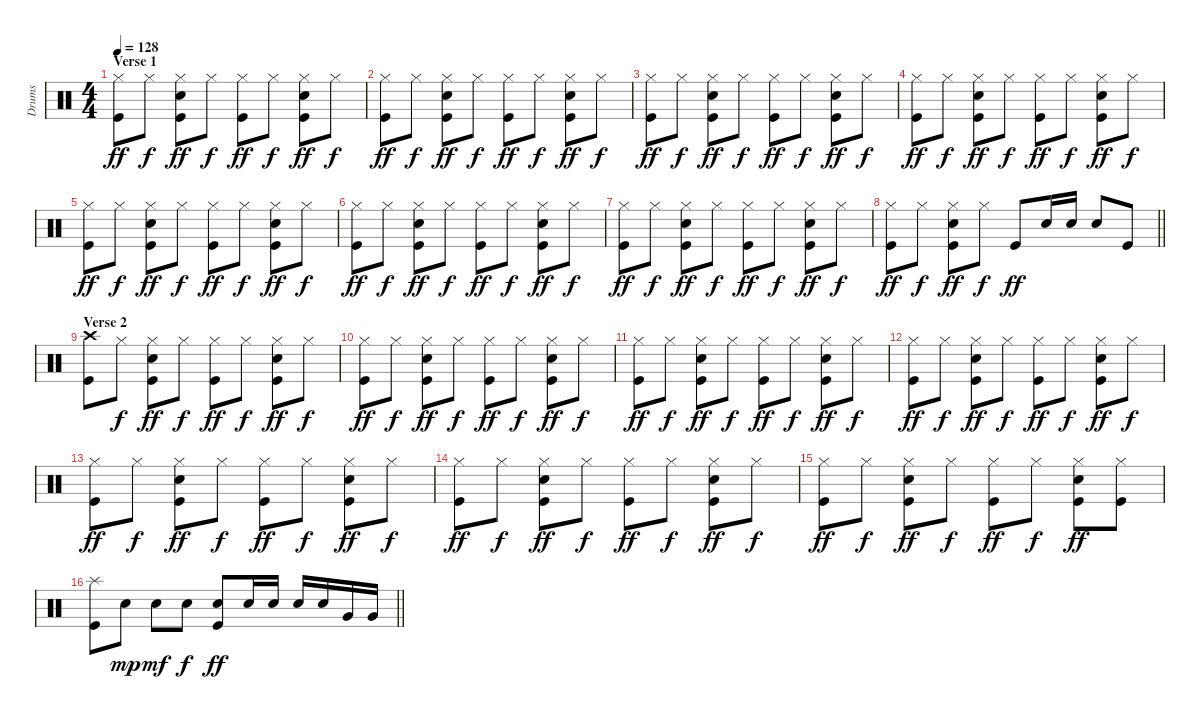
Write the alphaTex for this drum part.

\track ("Drums" "Drums") {instrument percussion}
\staff {score}
\articulation defaults
\ts (4 4)
\section ("" "Verse 1")
\tempo 128
\clef neutral
\ks c
("Hi-Hat (closed)" "Kick (hit)").8{dy ff} "Hi-Hat (closed)".8{dy f} ("Hi-Hat (closed)" "Electric Snare (hit)" "Kick (hit)").8{dy ff} "Hi-Hat (closed)".8{dy f} ("Hi-Hat (closed)" "Kick (hit)").8{dy ff} "Hi-Hat (closed)".8{dy f} ("Hi-Hat (closed)" "Electric Snare (hit)" "Kick (hit)").8{dy ff} "Hi-Hat (closed)".8{dy f} |
("Hi-Hat (closed)" "Kick (hit)").8{dy ff} "Hi-Hat (closed)".8{dy f} ("Hi-Hat (closed)" "Electric Snare (hit)" "Kick (hit)").8{dy ff} "Hi-Hat (closed)".8{dy f} ("Hi-Hat (closed)" "Kick (hit)").8{dy ff} "Hi-Hat (closed)".8{dy f} ("Hi-Hat (closed)" "Electric Snare (hit)" "Kick (hit)").8{dy ff} "Hi-Hat (closed)".8{dy f} |
("Hi-Hat (closed)" "Kick (hit)").8{dy ff} "Hi-Hat (closed)".8{dy f} ("Hi-Hat (closed)" "Electric Snare (hit)" "Kick (hit)").8{dy ff} "Hi-Hat (closed)".8{dy f} ("Hi-Hat (closed)" "Kick (hit)").8{dy ff} "Hi-Hat (closed)".8{dy f} ("Hi-Hat (closed)" "Electric Snare (hit)" "Kick (hit)").8{dy ff} "Hi-Hat (closed)".8{dy f} |
("Hi-Hat (closed)" "Kick (hit)").8{dy ff} "Hi-Hat (closed)".8{dy f} ("Hi-Hat (closed)" "Electric Snare (hit)" "Kick (hit)").8{dy ff} "Hi-Hat (closed)".8{dy f} ("Hi-Hat (closed)" "Kick (hit)").8{dy ff} "Hi-Hat (closed)".8{dy f} ("Hi-Hat (closed)" "Electric Snare (hit)" "Kick (hit)").8{dy ff} "Hi-Hat (closed)".8{dy f} |
("Hi-Hat (closed)" "Kick (hit)").8{dy ff} "Hi-Hat (closed)".8{dy f} ("Hi-Hat (closed)" "Electric Snare (hit)" "Kick (hit)").8{dy ff} "Hi-Hat (closed)".8{dy f} ("Hi-Hat (closed)" "Kick (hit)").8{dy ff} "Hi-Hat (closed)".8{dy f} ("Hi-Hat (closed)" "Electric Snare (hit)" "Kick (hit)").8{dy ff} "Hi-Hat (closed)".8{dy f} |
("Hi-Hat (closed)" "Kick (hit)").8{dy ff} "Hi-Hat (closed)".8{dy f} ("Hi-Hat (closed)" "Electric Snare (hit)" "Kick (hit)").8{dy ff} "Hi-Hat (closed)".8{dy f} ("Hi-Hat (closed)" "Kick (hit)").8{dy ff} "Hi-Hat (closed)".8{dy f} ("Hi-Hat (closed)" "Electric Snare (hit)" "Kick (hit)").8{dy ff} "Hi-Hat (closed)".8{dy f} |
("Hi-Hat (closed)" "Kick (hit)").8{dy ff} "Hi-Hat (closed)".8{dy f} ("Hi-Hat (closed)" "Electric Snare (hit)" "Kick (hit)").8{dy ff} "Hi-Hat (closed)".8{dy f} ("Hi-Hat (closed)" "Kick (hit)").8{dy ff} "Hi-Hat (closed)".8{dy f} ("Hi-Hat (closed)" "Electric Snare (hit)" "Kick (hit)").8{dy ff} "Hi-Hat (closed)".8{dy f} |
\barLineRight lightlight
("Hi-Hat (closed)" "Kick (hit)").8{dy ff} "Hi-Hat (closed)".8{dy f} ("Hi-Hat (closed)" "Electric Snare (hit)" "Kick (hit)").8{dy ff} "Hi-Hat (closed)".8{dy f} "Kick (hit)".8{dy ff} "Electric Snare (hit)".16 "Electric Snare (hit)".16 "Electric Snare (hit)".8 "Kick (hit)".8 |
\section ("" "Verse 2")
("Crash high (hit)" "Kick (hit)").8 "Hi-Hat (closed)".8{dy f} ("Hi-Hat (closed)" "Electric Snare (hit)" "Kick (hit)").8{dy ff} "Hi-Hat (closed)".8{dy f} ("Hi-Hat (closed)" "Kick (hit)").8{dy ff} "Hi-Hat (closed)".8{dy f} ("Hi-Hat (closed)" "Electric Snare (hit)" "Kick (hit)").8{dy ff} "Hi-Hat (closed)".8{dy f} |
("Hi-Hat (closed)" "Kick (hit)").8{dy ff} "Hi-Hat (closed)".8{dy f} ("Hi-Hat (closed)" "Electric Snare (hit)" "Kick (hit)").8{dy ff} "Hi-Hat (closed)".8{dy f} ("Hi-Hat (closed)" "Kick (hit)").8{dy ff} "Hi-Hat (closed)".8{dy f} ("Hi-Hat (closed)" "Electric Snare (hit)" "Kick (hit)").8{dy ff} "Hi-Hat (closed)".8{dy f} |
("Hi-Hat (closed)" "Kick (hit)").8{dy ff} "Hi-Hat (closed)".8{dy f} ("Hi-Hat (closed)" "Electric Snare (hit)" "Kick (hit)").8{dy ff} "Hi-Hat (closed)".8{dy f} ("Hi-Hat (closed)" "Kick (hit)").8{dy ff} "Hi-Hat (closed)".8{dy f} ("Hi-Hat (closed)" "Electric Snare (hit)" "Kick (hit)").8{dy ff} "Hi-Hat (closed)".8{dy f} |
("Hi-Hat (closed)" "Kick (hit)").8{dy ff} "Hi-Hat (closed)".8{dy f} ("Hi-Hat (closed)" "Electric Snare (hit)" "Kick (hit)").8{dy ff} "Hi-Hat (closed)".8{dy f} ("Hi-Hat (closed)" "Kick (hit)").8{dy ff} "Hi-Hat (closed)".8{dy f} ("Hi-Hat (closed)" "Electric Snare (hit)" "Kick (hit)").8{dy ff} "Hi-Hat (closed)".8{dy f} |
("Hi-Hat (closed)" "Kick (hit)").8{dy ff} "Hi-Hat (closed)".8{dy f} ("Hi-Hat (closed)" "Electric Snare (hit)" "Kick (hit)").8{dy ff} "Hi-Hat (closed)".8{dy f} ("Hi-Hat (closed)" "Kick (hit)").8{dy ff} "Hi-Hat (closed)".8{dy f} ("Hi-Hat (closed)" "Electric Snare (hit)" "Kick (hit)").8{dy ff} "Hi-Hat (closed)".8{dy f} |
("Hi-Hat (closed)" "Kick (hit)").8{dy ff} "Hi-Hat (closed)".8{dy f} ("Hi-Hat (closed)" "Electric Snare (hit)" "Kick (hit)").8{dy ff} "Hi-Hat (closed)".8{dy f} ("Hi-Hat (closed)" "Kick (hit)").8{dy ff} "Hi-Hat (closed)".8{dy f} ("Hi-Hat (closed)" "Electric Snare (hit)" "Kick (hit)").8{dy ff} "Hi-Hat (closed)".8{dy f} |
("Hi-Hat (closed)" "Kick (hit)").8{dy ff} "Hi-Hat (closed)".8{dy f} ("Hi-Hat (closed)" "Electric Snare (hit)" "Kick (hit)").8{dy ff} "Hi-Hat (closed)".8{dy f} ("Hi-Hat (closed)" "Kick (hit)").8{dy ff} "Hi-Hat (closed)".8{dy f} ("Hi-Hat (closed)" "Electric Snare (hit)" "Kick (hit)").8{dy ff} ("Hi-Hat (closed)" "Kick (hit)").8 |
\barLineRight lightlight
("Splash (hit)" "Kick (hit)").8 "Electric Snare (hit)".8{dy mp} "Electric Snare (hit)".8{dy mf} "Electric Snare (hit)".8{dy f} ("Electric Snare (hit)" "Kick (hit)").8{dy ff} "Electric Snare (hit)".16 "Electric Snare (hit)".16 "Electric Snare (hit)".16 "Electric Snare (hit)".16 "Very Low Tom (hit)".16 "Very Low Tom (hit)".16
